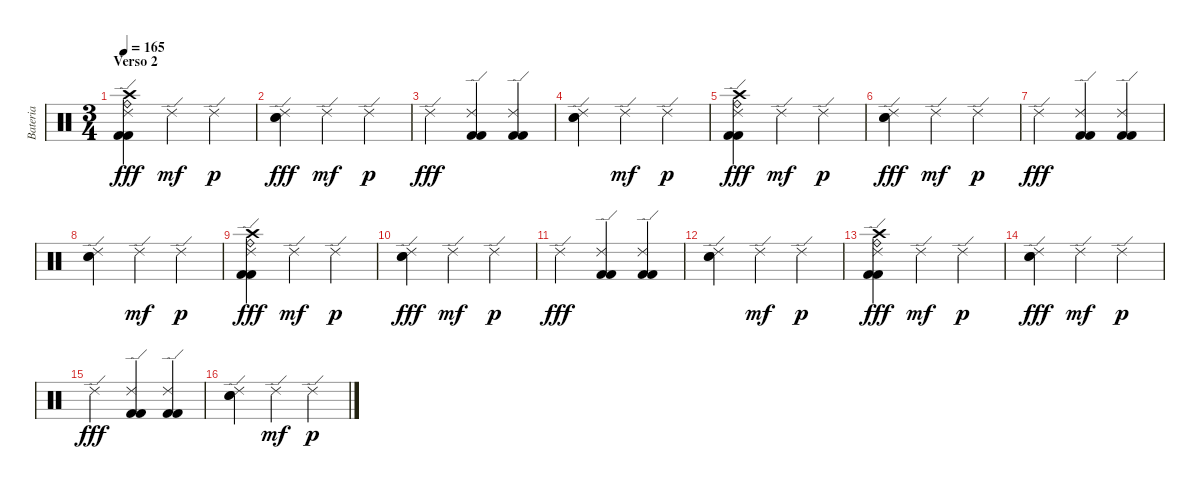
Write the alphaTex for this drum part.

\track ("Bateria" "Bateria") {instrument percussion}
\staff {score}
\articulation defaults
\ts (3 4)
\section ("" "Verso 2")
\tempo 165
\clef neutral
\ks c
("Crash high (hit)" "Ride (edge) 2" "Ride (bell)" "Kick (hit) 2" "Kick (hit) 2").4{dy fff} "Ride (edge) 2".4{dy mf} "Ride (edge) 2".4{dy p} |
("Ride (edge) 2" "Snare (hit) 2" "Electric Snare (hit)").4{dy fff} "Ride (edge) 2".4{dy mf} "Ride (edge) 2".4{dy p} |
"Ride (edge) 2".4{dy fff} ("Ride (edge) 2" "Kick (hit) 2" "Kick (hit) 2").4 ("Ride (edge) 2" "Kick (hit) 2" "Kick (hit) 2").4 |
("Ride (edge) 2" "Electric Snare (hit)" "Snare (hit) 2").4 "Ride (edge) 2".4{dy mf} "Ride (edge) 2".4{dy p} |
("Crash high (hit)" "Ride (edge) 2" "Ride (bell)" "Kick (hit) 2" "Kick (hit) 2").4{dy fff} "Ride (edge) 2".4{dy mf} "Ride (edge) 2".4{dy p} |
("Ride (edge) 2" "Snare (hit) 2" "Electric Snare (hit)").4{dy fff} "Ride (edge) 2".4{dy mf} "Ride (edge) 2".4{dy p} |
"Ride (edge) 2".4{dy fff} ("Ride (edge) 2" "Kick (hit) 2" "Kick (hit) 2").4 ("Ride (edge) 2" "Kick (hit) 2" "Kick (hit) 2").4 |
("Ride (edge) 2" "Electric Snare (hit)" "Snare (hit) 2").4 "Ride (edge) 2".4{dy mf} "Ride (edge) 2".4{dy p} |
("Crash high (hit)" "Ride (edge) 2" "Ride (bell)" "Kick (hit) 2" "Kick (hit) 2").4{dy fff} "Ride (edge) 2".4{dy mf} "Ride (edge) 2".4{dy p} |
("Ride (edge) 2" "Snare (hit) 2" "Electric Snare (hit)").4{dy fff} "Ride (edge) 2".4{dy mf} "Ride (edge) 2".4{dy p} |
"Ride (edge) 2".4{dy fff} ("Ride (edge) 2" "Kick (hit) 2" "Kick (hit) 2").4 ("Ride (edge) 2" "Kick (hit) 2" "Kick (hit) 2").4 |
("Ride (edge) 2" "Electric Snare (hit)" "Snare (hit) 2").4 "Ride (edge) 2".4{dy mf} "Ride (edge) 2".4{dy p} |
("Crash high (hit)" "Ride (edge) 2" "Ride (bell)" "Kick (hit) 2" "Kick (hit) 2").4{dy fff} "Ride (edge) 2".4{dy mf} "Ride (edge) 2".4{dy p} |
("Ride (edge) 2" "Snare (hit) 2" "Electric Snare (hit)").4{dy fff} "Ride (edge) 2".4{dy mf} "Ride (edge) 2".4{dy p} |
"Ride (edge) 2".4{dy fff} ("Ride (edge) 2" "Kick (hit) 2" "Kick (hit) 2").4 ("Ride (edge) 2" "Kick (hit) 2" "Kick (hit) 2").4 |
("Ride (edge) 2" "Electric Snare (hit)" "Snare (hit) 2").4 "Ride (edge) 2".4{dy mf} "Ride (edge) 2".4{dy p}
